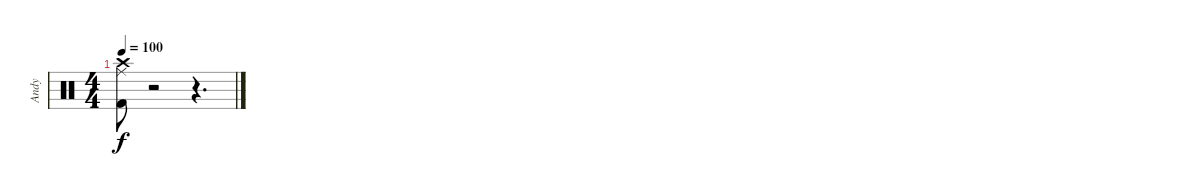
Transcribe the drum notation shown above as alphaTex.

\track ("Andy" "Andy") {instrument percussion}
\staff {score}
\articulation defaults
\ts (4 4)
\tempo 100
\clef neutral
\ks c
("Crash high (hit)" "Ride (middle)" "Kick (hit) 2").8{dy f} r.2 r.4{d}
